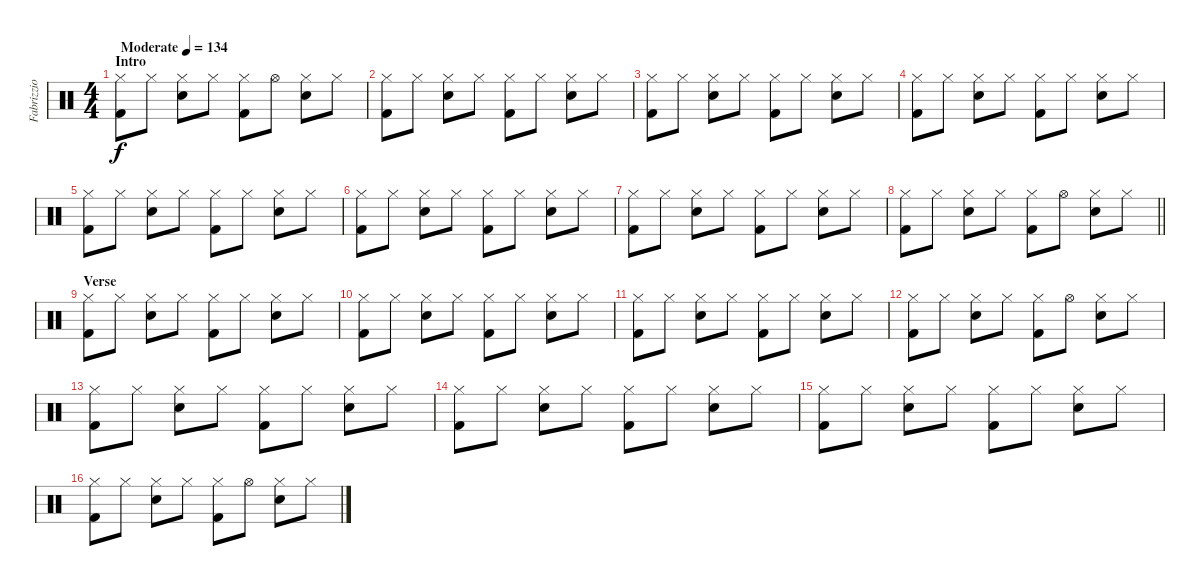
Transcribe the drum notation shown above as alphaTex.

\track ("Fabrizzio" "Fabrizzio") {instrument percussion}
\staff {score}
\articulation defaults
\ts (4 4)
\section ("" "Intro")
\tempo (134 "Moderate")
\clef neutral
\ks c
("Hi-Hat (closed)" "Kick (hit) 2").8{dy f} "Hi-Hat (closed)".8 ("Hi-Hat (closed)" "Snare (hit) 2").8 "Hi-Hat (closed)".8 ("Hi-Hat (closed)" "Kick (hit) 2").8 "Hi-Hat (open)".8 ("Hi-Hat (closed)" "Snare (hit) 2").8 "Hi-Hat (closed)".8 |
("Hi-Hat (closed)" "Kick (hit) 2").8 "Hi-Hat (closed)".8 ("Hi-Hat (closed)" "Snare (hit) 2").8 "Hi-Hat (closed)".8 ("Hi-Hat (closed)" "Kick (hit) 2").8 "Hi-Hat (closed)".8 ("Hi-Hat (closed)" "Snare (hit) 2").8 "Hi-Hat (closed)".8 |
("Hi-Hat (closed)" "Kick (hit) 2").8 "Hi-Hat (closed)".8 ("Hi-Hat (closed)" "Snare (hit) 2").8 "Hi-Hat (closed)".8 ("Hi-Hat (closed)" "Kick (hit) 2").8 "Hi-Hat (closed)".8 ("Hi-Hat (closed)" "Snare (hit) 2").8 "Hi-Hat (closed)".8 |
("Hi-Hat (closed)" "Kick (hit) 2").8 "Hi-Hat (closed)".8 ("Hi-Hat (closed)" "Snare (hit) 2").8 "Hi-Hat (closed)".8 ("Hi-Hat (closed)" "Kick (hit) 2").8 "Hi-Hat (closed)".8 ("Hi-Hat (closed)" "Snare (hit) 2").8 "Hi-Hat (closed)".8 |
("Hi-Hat (closed)" "Kick (hit) 2").8 "Hi-Hat (closed)".8 ("Hi-Hat (closed)" "Snare (hit) 2").8 "Hi-Hat (closed)".8 ("Hi-Hat (closed)" "Kick (hit) 2").8 "Hi-Hat (closed)".8 ("Hi-Hat (closed)" "Snare (hit) 2").8 "Hi-Hat (closed)".8 |
("Hi-Hat (closed)" "Kick (hit) 2").8 "Hi-Hat (closed)".8 ("Hi-Hat (closed)" "Snare (hit) 2").8 "Hi-Hat (closed)".8 ("Hi-Hat (closed)" "Kick (hit) 2").8 "Hi-Hat (closed)".8 ("Hi-Hat (closed)" "Snare (hit) 2").8 "Hi-Hat (closed)".8 |
("Hi-Hat (closed)" "Kick (hit) 2").8 "Hi-Hat (closed)".8 ("Hi-Hat (closed)" "Snare (hit) 2").8 "Hi-Hat (closed)".8 ("Hi-Hat (closed)" "Kick (hit) 2").8 "Hi-Hat (closed)".8 ("Hi-Hat (closed)" "Snare (hit) 2").8 "Hi-Hat (closed)".8 |
\barLineRight lightlight
("Hi-Hat (closed)" "Kick (hit) 2").8 "Hi-Hat (closed)".8 ("Hi-Hat (closed)" "Snare (hit) 2").8 "Hi-Hat (closed)".8 ("Hi-Hat (closed)" "Kick (hit) 2").8 "Hi-Hat (open)".8 ("Hi-Hat (closed)" "Snare (hit) 2").8 "Hi-Hat (closed)".8 |
\section ("" "Verse")
("Hi-Hat (closed)" "Kick (hit) 2").8 "Hi-Hat (closed)".8 ("Hi-Hat (closed)" "Snare (hit) 2").8 "Hi-Hat (closed)".8 ("Hi-Hat (closed)" "Kick (hit) 2").8 "Hi-Hat (closed)".8 ("Hi-Hat (closed)" "Snare (hit) 2").8 "Hi-Hat (closed)".8 |
("Hi-Hat (closed)" "Kick (hit) 2").8 "Hi-Hat (closed)".8 ("Hi-Hat (closed)" "Snare (hit) 2").8 "Hi-Hat (closed)".8 ("Hi-Hat (closed)" "Kick (hit) 2").8 "Hi-Hat (closed)".8 ("Hi-Hat (closed)" "Snare (hit) 2").8 "Hi-Hat (closed)".8 |
("Hi-Hat (closed)" "Kick (hit) 2").8 "Hi-Hat (closed)".8 ("Hi-Hat (closed)" "Snare (hit) 2").8 "Hi-Hat (closed)".8 ("Hi-Hat (closed)" "Kick (hit) 2").8 "Hi-Hat (closed)".8 ("Hi-Hat (closed)" "Snare (hit) 2").8 "Hi-Hat (closed)".8 |
("Hi-Hat (closed)" "Kick (hit) 2").8 "Hi-Hat (closed)".8 ("Hi-Hat (closed)" "Snare (hit) 2").8 "Hi-Hat (closed)".8 ("Hi-Hat (closed)" "Kick (hit) 2").8 "Hi-Hat (open)".8 ("Hi-Hat (closed)" "Snare (hit) 2").8 "Hi-Hat (closed)".8 |
("Hi-Hat (closed)" "Kick (hit) 2").8 "Hi-Hat (closed)".8 ("Hi-Hat (closed)" "Snare (hit) 2").8 "Hi-Hat (closed)".8 ("Hi-Hat (closed)" "Kick (hit) 2").8 "Hi-Hat (closed)".8 ("Hi-Hat (closed)" "Snare (hit) 2").8 "Hi-Hat (closed)".8 |
("Hi-Hat (closed)" "Kick (hit) 2").8 "Hi-Hat (closed)".8 ("Hi-Hat (closed)" "Snare (hit) 2").8 "Hi-Hat (closed)".8 ("Hi-Hat (closed)" "Kick (hit) 2").8 "Hi-Hat (closed)".8 ("Hi-Hat (closed)" "Snare (hit) 2").8 "Hi-Hat (closed)".8 |
("Hi-Hat (closed)" "Kick (hit) 2").8 "Hi-Hat (closed)".8 ("Hi-Hat (closed)" "Snare (hit) 2").8 "Hi-Hat (closed)".8 ("Hi-Hat (closed)" "Kick (hit) 2").8 "Hi-Hat (closed)".8 ("Hi-Hat (closed)" "Snare (hit) 2").8 "Hi-Hat (closed)".8 |
("Hi-Hat (closed)" "Kick (hit) 2").8 "Hi-Hat (closed)".8 ("Hi-Hat (closed)" "Snare (hit) 2").8 "Hi-Hat (closed)".8 ("Hi-Hat (closed)" "Kick (hit) 2").8 "Hi-Hat (open)".8 ("Hi-Hat (closed)" "Snare (hit) 2").8 "Hi-Hat (closed)".8
